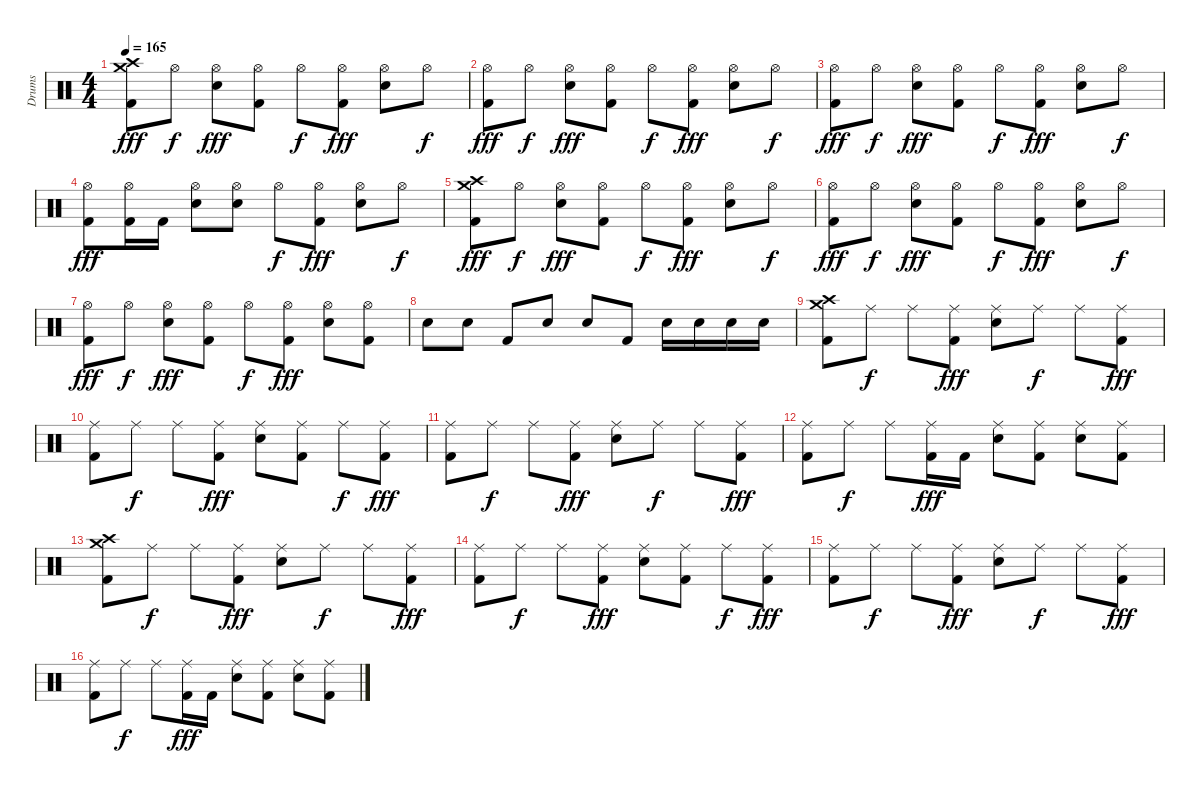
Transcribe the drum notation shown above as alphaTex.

\track ("Drums" "Drums") {instrument percussion}
\staff {score}
\articulation defaults
\ts (4 4)
\tempo 165
\clef neutral
\ks c
("Kick (hit) 2" "Crash medium (hit)" "Crash high (hit)").8{dy fff} "Hi-Hat (open)".8{dy f} ("Electric Snare (hit)" "Hi-Hat (open)").8{dy fff} ("Kick (hit) 2" "Hi-Hat (open)").8 "Hi-Hat (open)".8{dy f} ("Kick (hit) 2" "Hi-Hat (open)").8{dy fff} ("Electric Snare (hit)" "Hi-Hat (open)").8 "Hi-Hat (open)".8{dy f} |
("Kick (hit) 2" "Hi-Hat (open)").8{dy fff} "Hi-Hat (open)".8{dy f} ("Electric Snare (hit)" "Hi-Hat (open)").8{dy fff} ("Kick (hit) 2" "Hi-Hat (open)").8 "Hi-Hat (open)".8{dy f} ("Kick (hit) 2" "Hi-Hat (open)").8{dy fff} ("Electric Snare (hit)" "Hi-Hat (open)").8 "Hi-Hat (open)".8{dy f} |
("Kick (hit) 2" "Hi-Hat (open)").8{dy fff} "Hi-Hat (open)".8{dy f} ("Electric Snare (hit)" "Hi-Hat (open)").8{dy fff} ("Kick (hit) 2" "Hi-Hat (open)").8 "Hi-Hat (open)".8{dy f} ("Kick (hit) 2" "Hi-Hat (open)").8{dy fff} ("Electric Snare (hit)" "Hi-Hat (open)").8 "Hi-Hat (open)".8{dy f} |
("Kick (hit) 2" "Hi-Hat (open)").8{dy fff} ("Kick (hit) 2" "Hi-Hat (open)").16 "Kick (hit) 2".16 ("Electric Snare (hit)" "Hi-Hat (open)").8 ("Electric Snare (hit)" "Hi-Hat (open)").8 "Hi-Hat (open)".8{dy f} ("Kick (hit) 2" "Hi-Hat (open)").8{dy fff} ("Electric Snare (hit)" "Hi-Hat (open)").8 "Hi-Hat (open)".8{dy f} |
("Kick (hit) 2" "Crash medium (hit)" "Crash high (hit)").8{dy fff} "Hi-Hat (open)".8{dy f} ("Electric Snare (hit)" "Hi-Hat (open)").8{dy fff} ("Kick (hit) 2" "Hi-Hat (open)").8 "Hi-Hat (open)".8{dy f} ("Kick (hit) 2" "Hi-Hat (open)").8{dy fff} ("Electric Snare (hit)" "Hi-Hat (open)").8 "Hi-Hat (open)".8{dy f} |
("Kick (hit) 2" "Hi-Hat (open)").8{dy fff} "Hi-Hat (open)".8{dy f} ("Electric Snare (hit)" "Hi-Hat (open)").8{dy fff} ("Kick (hit) 2" "Hi-Hat (open)").8 "Hi-Hat (open)".8{dy f} ("Kick (hit) 2" "Hi-Hat (open)").8{dy fff} ("Electric Snare (hit)" "Hi-Hat (open)").8 "Hi-Hat (open)".8{dy f} |
("Kick (hit) 2" "Hi-Hat (open)").8{dy fff} "Hi-Hat (open)".8{dy f} ("Electric Snare (hit)" "Hi-Hat (open)").8{dy fff} ("Kick (hit) 2" "Hi-Hat (open)").8 "Hi-Hat (open)".8{dy f} ("Kick (hit) 2" "Hi-Hat (open)").8{dy fff} ("Electric Snare (hit)" "Hi-Hat (open)").8 ("Kick (hit) 2" "Hi-Hat (open)").8 |
"Electric Snare (hit)".8 "Electric Snare (hit)".8 "Kick (hit) 2".8 "Electric Snare (hit)".8 "Electric Snare (hit)".8 "Kick (hit) 2".8 "Electric Snare (hit)".16 "Electric Snare (hit)".16 "Electric Snare (hit)".16 "Electric Snare (hit)".16 |
("Kick (hit) 2" "Crash medium (hit)" "Crash high (hit)").8 "Ride (middle)".8{dy f} "Ride (middle)".8 ("Kick (hit) 2" "Ride (middle)").8{dy fff} ("Electric Snare (hit)" "Ride (middle)").8 "Ride (middle)".8{dy f} "Ride (middle)".8 ("Kick (hit) 2" "Ride (middle)").8{dy fff} |
("Kick (hit) 2" "Ride (middle)").8 "Ride (middle)".8{dy f} "Ride (middle)".8 ("Kick (hit) 2" "Ride (middle)").8{dy fff} ("Electric Snare (hit)" "Ride (middle)").8 ("Kick (hit) 2" "Ride (middle)").8 "Ride (middle)".8{dy f} ("Kick (hit) 2" "Ride (middle)").8{dy fff} |
("Kick (hit) 2" "Ride (middle)").8 "Ride (middle)".8{dy f} "Ride (middle)".8 ("Kick (hit) 2" "Ride (middle)").8{dy fff} ("Electric Snare (hit)" "Ride (middle)").8 "Ride (middle)".8{dy f} "Ride (middle)".8 ("Kick (hit) 2" "Ride (middle)").8{dy fff} |
("Kick (hit) 2" "Ride (middle)").8 "Ride (middle)".8{dy f} "Ride (middle)".8 ("Kick (hit) 2" "Ride (middle)").16{dy fff} "Kick (hit) 2".16 ("Electric Snare (hit)" "Ride (middle)").8 ("Kick (hit) 2" "Ride (middle)").8 ("Electric Snare (hit)" "Ride (middle)").8 ("Kick (hit) 2" "Ride (middle)").8 |
("Kick (hit) 2" "Crash medium (hit)" "Crash high (hit)").8 "Ride (middle)".8{dy f} "Ride (middle)".8 ("Kick (hit) 2" "Ride (middle)").8{dy fff} ("Electric Snare (hit)" "Ride (middle)").8 "Ride (middle)".8{dy f} "Ride (middle)".8 ("Kick (hit) 2" "Ride (middle)").8{dy fff} |
("Kick (hit) 2" "Ride (middle)").8 "Ride (middle)".8{dy f} "Ride (middle)".8 ("Kick (hit) 2" "Ride (middle)").8{dy fff} ("Electric Snare (hit)" "Ride (middle)").8 ("Kick (hit) 2" "Ride (middle)").8 "Ride (middle)".8{dy f} ("Kick (hit) 2" "Ride (middle)").8{dy fff} |
("Kick (hit) 2" "Ride (middle)").8 "Ride (middle)".8{dy f} "Ride (middle)".8 ("Kick (hit) 2" "Ride (middle)").8{dy fff} ("Electric Snare (hit)" "Ride (middle)").8 "Ride (middle)".8{dy f} "Ride (middle)".8 ("Kick (hit) 2" "Ride (middle)").8{dy fff} |
("Kick (hit) 2" "Ride (middle)").8 "Ride (middle)".8{dy f} "Ride (middle)".8 ("Kick (hit) 2" "Ride (middle)").16{dy fff} "Kick (hit) 2".16 ("Electric Snare (hit)" "Ride (middle)").8 ("Kick (hit) 2" "Ride (middle)").8 ("Electric Snare (hit)" "Ride (middle)").8 ("Kick (hit) 2" "Ride (middle)").8
